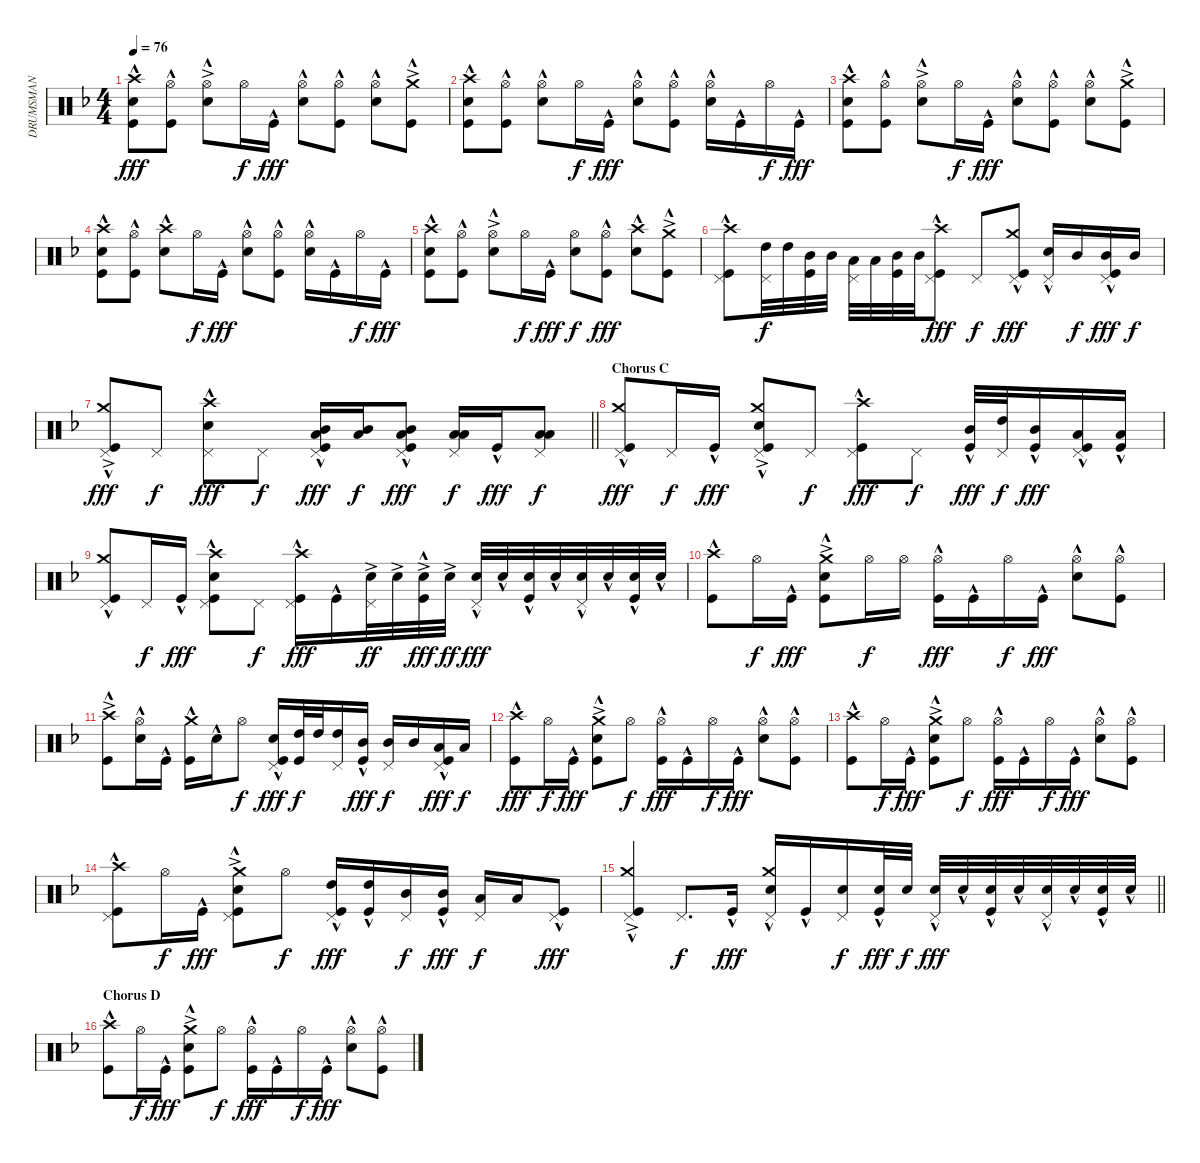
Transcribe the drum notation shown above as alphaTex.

\track ("DRUMSMAN" "DRUMSMAN") {instrument percussion}
\staff {score}
\articulation defaults
\ts (4 4)
\tempo 76
\clef neutral
\ks f
("Crash high (hit)"{hac} "Snare (hit) 2"{hac} "Kick (hit)"{hac}).8{dy fff} ("Hi-Hat (open)" "Kick (hit)"{hac}).8 ("Hi-Hat (open)"{ac} "Snare (hit) 2"{hac}).8 "Hi-Hat (open)".16{dy f} "Kick (hit)"{hac}.16{dy fff} ("Hi-Hat (open)" "Snare (hit) 2"{hac}).8 ("Hi-Hat (open)" "Kick (hit)"{hac}).8 ("Hi-Hat (open)" "Snare (hit) 2"{hac}).8 ("Crash medium (hit)"{ac} "Kick (hit)"{hac}).8 |
("Crash high (hit)"{hac} "Snare (hit) 2"{hac} "Kick (hit)"{hac}).8 ("Hi-Hat (open)" "Kick (hit)"{hac}).8 ("Hi-Hat (open)" "Snare (hit) 2"{hac}).8 "Hi-Hat (open)".16{dy f} "Kick (hit)"{hac}.16{dy fff} ("Hi-Hat (open)" "Snare (hit) 2"{hac}).8 ("Hi-Hat (open)" "Kick (hit)"{hac}).8 ("Hi-Hat (open)" "Snare (hit) 2"{hac}).16 "Kick (hit)"{hac}.16 "Hi-Hat (open)".16{dy f} "Kick (hit)"{hac}.16{dy fff} |
("Crash high (hit)"{hac} "Snare (hit) 2"{hac} "Kick (hit)"{hac}).8 ("Hi-Hat (open)" "Kick (hit)"{hac}).8 ("Hi-Hat (open)"{ac} "Snare (hit) 2"{hac}).8 "Hi-Hat (open)".16{dy f} "Kick (hit)"{hac}.16{dy fff} ("Hi-Hat (open)" "Snare (hit) 2"{hac}).8 ("Hi-Hat (open)" "Kick (hit)"{hac}).8 ("Hi-Hat (open)" "Snare (hit) 2"{hac}).8 ("Crash medium (hit)"{ac} "Kick (hit)"{hac}).8 |
("Crash high (hit)"{hac} "Snare (hit) 2"{hac} "Kick (hit)"{hac}).8 ("Hi-Hat (open)" "Kick (hit)"{hac}).8 ("Crash high (hit)"{hac} "Snare (hit) 2"{hac}).8 "Hi-Hat (open)".16{dy f} "Kick (hit)"{hac}.16{dy fff} ("Hi-Hat (open)" "Snare (hit) 2"{hac}).8 ("Hi-Hat (open)" "Kick (hit)"{hac}).8 ("Hi-Hat (open)" "Snare (hit) 2"{hac}).16 "Kick (hit)"{hac}.16 "Hi-Hat (open)".16{dy f} "Kick (hit)"{hac}.16{dy fff} |
("Crash high (hit)"{hac} "Snare (hit) 2"{hac} "Kick (hit)"{hac}).8 ("Hi-Hat (open)" "Kick (hit)"{hac}).8 ("Hi-Hat (open)"{ac} "Snare (hit) 2"{hac}).8 "Hi-Hat (open)".16{dy f} "Kick (hit)"{hac}.16{dy fff} ("Hi-Hat (open)" "Snare (hit) 2").8{dy f} ("Hi-Hat (open)" "Kick (hit)"{hac}).8{dy fff} ("Crash high (hit)"{hac} "Snare (hit) 2"{hac}).8 ("Crash medium (hit)"{ac} "Kick (hit)"{hac}).8 |
("Crash high (hit)"{hac} "Pedal Hi-Hat (hit)" "Kick (hit)").8 ("High Tom (hit)" "Pedal Hi-Hat (hit)").32{dy f} "High Tom (hit)".32 ("Mid Tom (hit)" "Kick (hit)").32 "Mid Tom (hit)".32 ("Low Tom (hit)" "Pedal Hi-Hat (hit)").32 "Low Tom (hit)".32 ("Mid Tom (hit)" "Kick (hit)").32 "Mid Tom (hit)".32 ("Crash high (hit)"{hac} "Pedal Hi-Hat (hit)" "Kick (hit)"{hac}).8{dy fff} "Pedal Hi-Hat (hit)".8{dy f} ("Crash medium (hit)" "Pedal Hi-Hat (hit)" "Kick (hit)"{hac}).8{dy fff} ("Snare (hit) 2"{hac} "Pedal Hi-Hat (hit)").16 "Mid Tom (hit)".16{dy f} ("Mid Tom (hit)" "Pedal Hi-Hat (hit)" "Kick (hit)"{hac}).16{dy fff} "Mid Tom (hit)".16{dy f} |
\barLineRight lightlight
("Crash medium (hit)"{ac} "Pedal Hi-Hat (hit)" "Kick (hit)"{hac}).8{dy fff} "Pedal Hi-Hat (hit)".8{dy f} ("Crash high (hit)"{hac} "Snare (hit) 2"{hac} "Pedal Hi-Hat (hit)").8{dy fff} "Pedal Hi-Hat (hit)".8{dy f} ("Mid Tom (hit)" "Low Tom (hit)" "Pedal Hi-Hat (hit)" "Kick (hit)"{hac}).16{dy fff} ("Mid Tom (hit)" "Low Tom (hit)").16{dy f} ("Mid Tom (hit)" "Low Tom (hit)" "Pedal Hi-Hat (hit)" "Kick (hit)"{hac}).8{dy fff} ("Low Tom (hit)" "Low Tom (hit)" "Pedal Hi-Hat (hit)").16{dy f} "Kick (hit)"{hac}.16{dy fff} ("Low Tom (hit)" "Low Tom (hit)" "Pedal Hi-Hat (hit)").8{dy f} |
\section ("" "Chorus C")
("Crash medium (hit)"{hac} "Pedal Hi-Hat (hit)" "Kick (hit)"{hac}).8{dy fff} "Pedal Hi-Hat (hit)".16{dy f} "Kick (hit)"{hac}.16{dy fff} ("Crash medium (hit)"{ac} "Snare (hit) 2"{hac} "Pedal Hi-Hat (hit)" "Kick (hit)"{hac}).8 "Pedal Hi-Hat (hit)".8{dy f} ("Crash high (hit)"{hac} "Pedal Hi-Hat (hit)" "Kick (hit)").8{dy fff} "Pedal Hi-Hat (hit)".8{dy f} ("Mid Tom (hit)" "Kick (hit)"{hac}).32{dy fff} ("High Tom (hit)" "Pedal Hi-Hat (hit)").32{dy f} ("Mid Tom (hit)" "Kick (hit)"{hac}).16{dy fff} ("Low Tom (hit)" "Pedal Hi-Hat (hit)" "Kick (hit)"{hac}).16 ("Low Tom (hit)" "Kick (hit)"{hac}).16 |
("Crash medium (hit)"{hac} "Pedal Hi-Hat (hit)" "Kick (hit)"{hac}).8 "Pedal Hi-Hat (hit)".16{dy f} "Kick (hit)"{hac}.16{dy fff} ("Crash high (hit)"{hac} "Snare (hit) 2"{hac} "Pedal Hi-Hat (hit)" "Kick (hit)"{hac}).8 "Pedal Hi-Hat (hit)".8{dy f} ("Crash high (hit)"{hac} "Pedal Hi-Hat (hit)" "Kick (hit)"{hac}).16{dy fff} "Kick (hit)"{hac}.16 ("Snare (hit) 2"{ac} "Pedal Hi-Hat (hit)").32{dy ff} "Snare (hit) 2"{ac}.32 ("Snare (hit) 2"{ac} "Kick (hit)"{hac}).32{dy fff} "Snare (hit) 2"{ac}.32{dy ff} ("Snare (hit) 2"{hac} "Pedal Hi-Hat (hit)").32{dy fff} "Snare (hit) 2"{hac}.32 ("Snare (hit) 2"{hac} "Kick (hit)"{hac}).32 "Snare (hit) 2"{hac}.32 ("Snare (hit) 2"{hac} "Pedal Hi-Hat (hit)").32 "Snare (hit) 2"{hac}.32 ("Snare (hit) 2"{hac} "Kick (hit)"{hac}).32 "Snare (hit) 2"{hac}.32 |
("Crash high (hit)"{hac} "Kick (hit)"{hac}).8 "Hi-Hat (open)".16{dy f} "Kick (hit)"{hac}.16{dy fff} ("Crash medium (hit)"{ac} "Snare (hit) 2"{hac} "Kick (hit)"{hac}).8 "Hi-Hat (open)".16{dy f} "Hi-Hat (open)".16 ("Hi-Hat (open)" "Kick (hit)"{hac}).16{dy fff} "Kick (hit)"{hac}.16 "Hi-Hat (open)".16{dy f} "Kick (hit)"{hac}.16{dy fff} ("Hi-Hat (open)" "Snare (hit) 2"{hac}).8 ("Hi-Hat (open)" "Kick (hit)"{hac}).8 |
("Crash high (hit)"{ac} "Kick (hit)"{hac}).8 ("Hi-Hat (open)" "Snare (hit) 2"{hac}).16 "Kick (hit)"{hac}.16 ("Crash medium (hit)" "Kick (hit)"{hac}).16 "Snare (hit) 2"{hac}.16 "Hi-Hat (open)".8{dy f} ("Snare (hit) 2"{hac} "Pedal Hi-Hat (hit)" "Kick (hit)"{hac}).16{dy fff} ("High Tom (hit)" "Kick (hit)").32{dy f} "High Tom (hit)".32 ("High Tom (hit)" "Pedal Hi-Hat (hit)").16 ("Mid Tom (hit)" "Kick (hit)"{hac}).16{dy fff} ("Mid Tom (hit)" "Pedal Hi-Hat (hit)").16{dy f} "Mid Tom (hit)".16 ("Low Tom (hit)" "Pedal Hi-Hat (hit)" "Kick (hit)"{hac}).16{dy fff} "Low Tom (hit)".16{dy f} |
("Crash high (hit)"{hac} "Kick (hit)"{hac}).8{dy fff} "Hi-Hat (open)".16{dy f} "Kick (hit)"{hac}.16{dy fff} ("Crash medium (hit)"{ac} "Snare (hit) 2"{hac} "Kick (hit)"{hac}).8 "Hi-Hat (open)".8{dy f} ("Hi-Hat (open)" "Kick (hit)"{hac}).16{dy fff} "Kick (hit)"{hac}.16 "Hi-Hat (open)".16{dy f} "Kick (hit)"{hac}.16{dy fff} ("Hi-Hat (open)" "Snare (hit) 2"{hac}).8 ("Hi-Hat (open)" "Kick (hit)"{hac}).8 |
("Crash high (hit)"{hac} "Kick (hit)"{hac}).8 "Hi-Hat (open)".16{dy f} "Kick (hit)"{hac}.16{dy fff} ("Crash medium (hit)"{ac} "Snare (hit) 2"{hac} "Kick (hit)"{hac}).8 "Hi-Hat (open)".8{dy f} ("Hi-Hat (open)" "Kick (hit)"{hac}).16{dy fff} "Kick (hit)"{hac}.16 "Hi-Hat (open)".16{dy f} "Kick (hit)"{hac}.16{dy fff} ("Hi-Hat (open)" "Snare (hit) 2"{hac}).8 ("Hi-Hat (open)" "Kick (hit)"{hac}).8 |
("Crash high (hit)"{hac} "Pedal Hi-Hat (hit)" "Kick (hit)"{hac}).8 "Hi-Hat (open)".16{dy f} "Kick (hit)"{hac}.16{dy fff} ("Crash medium (hit)"{ac} "Snare (hit) 2"{hac} "Pedal Hi-Hat (hit)" "Kick (hit)"{hac}).8 "Hi-Hat (open)".8{dy f} ("High Tom (hit)" "Pedal Hi-Hat (hit)" "Kick (hit)"{hac}).16{dy fff} ("High Tom (hit)" "Kick (hit)"{hac}).16 ("Mid Tom (hit)" "Pedal Hi-Hat (hit)").16{dy f} ("Mid Tom (hit)" "Kick (hit)"{hac}).16{dy fff} ("Low Tom (hit)" "Pedal Hi-Hat (hit)").16{dy f} "Low Tom (hit)".16 ("Pedal Hi-Hat (hit)" "Kick (hit)"{hac}).8{dy fff} |
\barLineRight lightlight
("Crash medium (hit)"{ac} "Pedal Hi-Hat (hit)" "Kick (hit)"{hac}).4 "Pedal Hi-Hat (hit)".8{d dy f} "Kick (hit)"{hac}.16{dy fff} ("Crash medium (hit)"{hac} "Snare (hit) 2" "Pedal Hi-Hat (hit)").16 "Kick (hit)"{hac}.16 ("Snare (hit) 2" "Pedal Hi-Hat (hit)").16{dy f} ("Snare (hit) 2" "Kick (hit)"{hac}).32{dy fff} "Snare (hit) 2".32{dy f} ("Snare (hit) 2"{hac} "Pedal Hi-Hat (hit)").32{dy fff} "Snare (hit) 2"{hac}.32 ("Snare (hit) 2"{hac} "Kick (hit)"{hac}).32 "Snare (hit) 2"{hac}.32 ("Snare (hit) 2"{hac} "Pedal Hi-Hat (hit)").32 "Snare (hit) 2"{hac}.32 ("Snare (hit) 2"{hac} "Kick (hit)"{hac}).32 "Snare (hit) 2"{hac}.32 |
\section ("" "Chorus D")
("Crash high (hit)"{hac} "Kick (hit)"{hac}).8 "Hi-Hat (open)".16{dy f} "Kick (hit)"{hac}.16{dy fff} ("Crash medium (hit)"{ac} "Snare (hit) 2"{hac} "Kick (hit)"{hac}).8 "Hi-Hat (open)".8{dy f} ("Hi-Hat (open)" "Kick (hit)"{hac}).16{dy fff} "Kick (hit)"{hac}.16 "Hi-Hat (open)".16{dy f} "Kick (hit)"{hac}.16{dy fff} ("Hi-Hat (open)" "Snare (hit) 2"{hac}).8 ("Hi-Hat (open)" "Kick (hit)"{hac}).8
